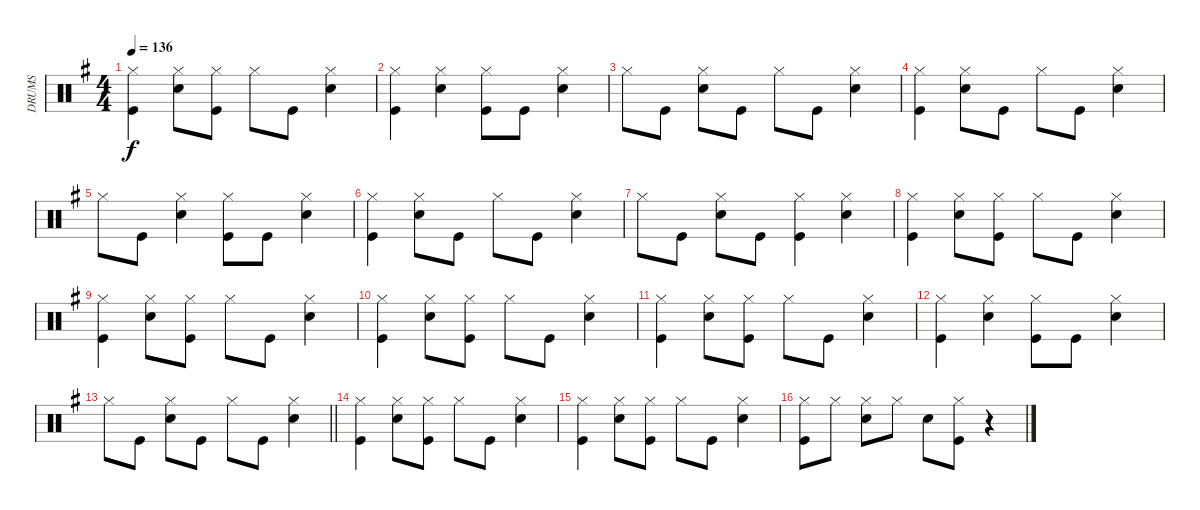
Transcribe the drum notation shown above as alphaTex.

\track ("DRUMS" "DRUMS") {instrument percussion}
\staff {score}
\articulation defaults
\ts (4 4)
\tempo 136
\clef neutral
\ks eminor
("Hi-Hat (closed)" "Kick (hit)").4{dy f} ("Hi-Hat (closed)" "Snare (hit) 2").8 ("Hi-Hat (closed)" "Kick (hit)").8 "Hi-Hat (closed)".8 "Kick (hit)".8 ("Hi-Hat (closed)" "Snare (hit) 2").4 |
("Hi-Hat (closed)" "Kick (hit)").4 ("Hi-Hat (closed)" "Snare (hit) 2").4 ("Hi-Hat (closed)" "Kick (hit)").8 "Kick (hit)".8 ("Hi-Hat (closed)" "Snare (hit) 2").4 |
"Hi-Hat (closed)".8 "Kick (hit)".8 ("Hi-Hat (closed)" "Snare (hit) 2").8 "Kick (hit)".8 "Hi-Hat (closed)".8 "Kick (hit)".8 ("Hi-Hat (closed)" "Snare (hit) 2").4 |
("Hi-Hat (closed)" "Kick (hit)").4 ("Hi-Hat (closed)" "Snare (hit) 2").8 "Kick (hit)".8 "Hi-Hat (closed)".8 "Kick (hit)".8 ("Hi-Hat (closed)" "Snare (hit) 2").4 |
"Hi-Hat (closed)".8 "Kick (hit)".8 ("Hi-Hat (closed)" "Snare (hit) 2").4 ("Hi-Hat (closed)" "Kick (hit)").8 "Kick (hit)".8 ("Hi-Hat (closed)" "Snare (hit) 2").4 |
("Hi-Hat (closed)" "Kick (hit)").4 ("Hi-Hat (closed)" "Snare (hit) 2").8 "Kick (hit)".8 "Hi-Hat (closed)".8 "Kick (hit)".8 ("Hi-Hat (closed)" "Snare (hit) 2").4 |
"Hi-Hat (closed)".8 "Kick (hit)".8 ("Hi-Hat (closed)" "Snare (hit) 2").8 "Kick (hit)".8 ("Hi-Hat (closed)" "Kick (hit)").4 ("Hi-Hat (closed)" "Snare (hit) 2").4 |
("Hi-Hat (closed)" "Kick (hit)").4 ("Hi-Hat (closed)" "Snare (hit) 2").8 ("Hi-Hat (closed)" "Kick (hit)").8 "Hi-Hat (closed)".8 "Kick (hit)".8 ("Hi-Hat (closed)" "Snare (hit) 2").4 |
("Hi-Hat (closed)" "Kick (hit)").4 ("Hi-Hat (closed)" "Snare (hit) 2").8 ("Hi-Hat (closed)" "Kick (hit)").8 "Hi-Hat (closed)".8 "Kick (hit)".8 ("Hi-Hat (closed)" "Snare (hit) 2").4 |
("Hi-Hat (closed)" "Kick (hit)").4 ("Hi-Hat (closed)" "Snare (hit) 2").8 ("Hi-Hat (closed)" "Kick (hit)").8 "Hi-Hat (closed)".8 "Kick (hit)".8 ("Hi-Hat (closed)" "Snare (hit) 2").4 |
("Hi-Hat (closed)" "Kick (hit)").4 ("Hi-Hat (closed)" "Snare (hit) 2").8 ("Hi-Hat (closed)" "Kick (hit)").8 "Hi-Hat (closed)".8 "Kick (hit)".8 ("Hi-Hat (closed)" "Snare (hit) 2").4 |
("Hi-Hat (closed)" "Kick (hit)").4 ("Hi-Hat (closed)" "Snare (hit) 2").4 ("Hi-Hat (closed)" "Kick (hit)").8 "Kick (hit)".8 ("Hi-Hat (closed)" "Snare (hit) 2").4 |
\barLineRight lightlight "Hi-Hat (closed)".8 "Kick (hit)".8
("Hi-Hat (closed)" "Snare (hit) 2").8 "Kick (hit)".8 "Hi-Hat (closed)".8 "Kick (hit)".8 ("Hi-Hat (closed)" "Snare (hit) 2").4 |
("Hi-Hat (closed)" "Kick (hit)").4 ("Hi-Hat (closed)" "Snare (hit) 2").8 ("Hi-Hat (closed)" "Kick (hit)").8 "Hi-Hat (closed)".8 "Kick (hit)".8 ("Hi-Hat (closed)" "Snare (hit) 2").4 |
("Hi-Hat (closed)" "Kick (hit)").4 ("Hi-Hat (closed)" "Snare (hit) 2").8 ("Hi-Hat (closed)" "Kick (hit)").8 "Hi-Hat (closed)".8 "Kick (hit)".8 ("Hi-Hat (closed)" "Snare (hit) 2").4 |
("Hi-Hat (closed)" "Kick (hit)").8 "Hi-Hat (closed)".8 ("Hi-Hat (closed)" "Snare (hit) 2").8 "Hi-Hat (closed)".8 "Snare (hit) 2".8 ("Hi-Hat (closed)" "Kick (hit)").8 r.4
